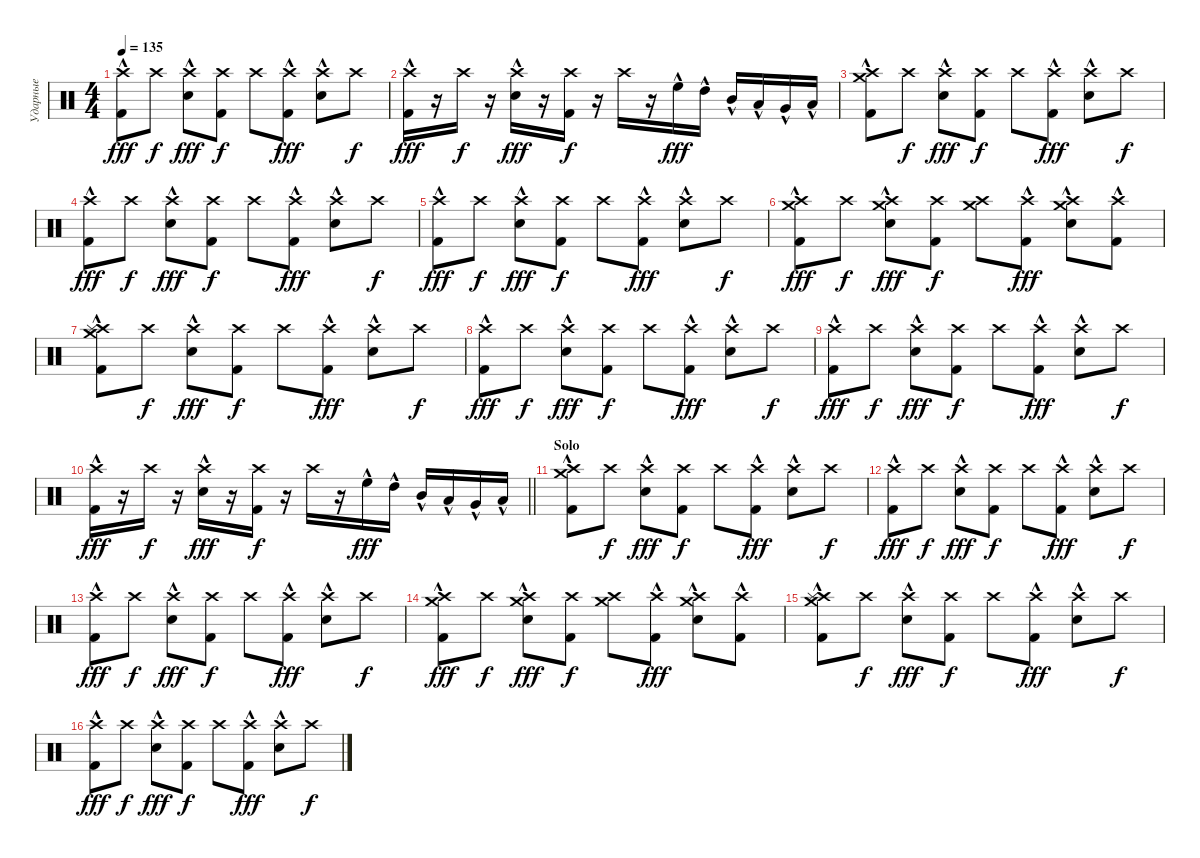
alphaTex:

\track ("Ударные" "Ударные") {instrument percussion}
\staff {score}
\articulation defaults
\ts (4 4)
\tempo 135
\clef neutral
\ks c
("Crash high (hit)" "Kick (hit) 2"{hac}).8{dy fff} "Crash high (hit)".8{dy f} ("Crash high (hit)" "Electric Snare (hit)"{hac}).8{dy fff} ("Crash high (hit)" "Kick (hit) 2").8{dy f} "Crash high (hit)".8 ("Crash high (hit)" "Kick (hit) 2"{hac}).8{dy fff} ("Crash high (hit)" "Electric Snare (hit)"{hac}).8 "Crash high (hit)".8{dy f} |
("Crash high (hit)" "Kick (hit) 2"{hac}).16{dy fff} r.16 "Crash high (hit)".16{dy f} r.16 ("Crash high (hit)" "Electric Snare (hit)"{hac}).16{dy fff} r.16 ("Crash high (hit)" "Kick (hit) 2").16{dy f} r.16 "Crash high (hit)".16 r.16 "High Floor Tom (hit)"{hac}.16{dy fff} "High Tom (hit)"{hac}.16 "Mid Tom (hit)"{hac}.16 "Low Tom (hit)"{hac}.16 "Very Low Tom (hit)"{hac}.16 "Low Floor Tom (hit)"{hac}.16 |
("Crash high (hit)" "Crash medium (hit)"{hac} "Kick (hit) 2"{hac}).8 "Crash high (hit)".8{dy f} ("Crash high (hit)" "Electric Snare (hit)"{hac}).8{dy fff} ("Crash high (hit)" "Kick (hit) 2").8{dy f} "Crash high (hit)".8 ("Crash high (hit)" "Kick (hit) 2"{hac}).8{dy fff} ("Crash high (hit)" "Electric Snare (hit)"{hac}).8 "Crash high (hit)".8{dy f} |
("Crash high (hit)" "Kick (hit) 2"{hac}).8{dy fff} "Crash high (hit)".8{dy f} ("Crash high (hit)" "Electric Snare (hit)"{hac}).8{dy fff} ("Crash high (hit)" "Kick (hit) 2").8{dy f} "Crash high (hit)".8 ("Crash high (hit)" "Kick (hit) 2"{hac}).8{dy fff} ("Crash high (hit)" "Electric Snare (hit)"{hac}).8 "Crash high (hit)".8{dy f} |
("Crash high (hit)" "Kick (hit) 2"{hac}).8{dy fff} "Crash high (hit)".8{dy f} ("Crash high (hit)" "Electric Snare (hit)"{hac}).8{dy fff} ("Crash high (hit)" "Kick (hit) 2").8{dy f} "Crash high (hit)".8 ("Crash high (hit)" "Kick (hit) 2"{hac}).8{dy fff} ("Crash high (hit)" "Electric Snare (hit)"{hac}).8 "Crash high (hit)".8{dy f} |
("Crash high (hit)" "Crash medium (hit)" "Kick (hit) 2"{hac}).8{dy fff} "Crash high (hit)".8{dy f} ("Crash high (hit)" "Crash medium (hit)" "Electric Snare (hit)"{hac}).8{dy fff} ("Crash high (hit)" "Kick (hit) 2").8{dy f} ("Crash high (hit)" "Crash medium (hit)").8 ("Crash high (hit)" "Kick (hit) 2"{hac}).8{dy fff} ("Crash high (hit)" "Crash medium (hit)" "Electric Snare (hit)"{hac}).8 ("Crash high (hit)" "Kick (hit) 2"{hac}).8 |
("Crash high (hit)"{hac} "Crash medium (hit)"{hac} "Splash (hit)"{hac} "Kick (hit) 2"{hac}).8 "Crash high (hit)".8{dy f} ("Crash high (hit)" "Electric Snare (hit)"{hac}).8{dy fff} ("Crash high (hit)" "Kick (hit) 2").8{dy f} "Crash high (hit)".8 ("Crash high (hit)" "Kick (hit) 2"{hac}).8{dy fff} ("Crash high (hit)" "Electric Snare (hit)"{hac}).8 "Crash high (hit)".8{dy f} |
("Crash high (hit)" "Kick (hit) 2"{hac}).8{dy fff} "Crash high (hit)".8{dy f} ("Crash high (hit)" "Electric Snare (hit)"{hac}).8{dy fff} ("Crash high (hit)" "Kick (hit) 2").8{dy f} "Crash high (hit)".8 ("Crash high (hit)" "Kick (hit) 2"{hac}).8{dy fff} ("Crash high (hit)" "Electric Snare (hit)"{hac}).8 "Crash high (hit)".8{dy f} |
("Crash high (hit)" "Kick (hit) 2"{hac}).8{dy fff} "Crash high (hit)".8{dy f} ("Crash high (hit)" "Electric Snare (hit)"{hac}).8{dy fff} ("Crash high (hit)" "Kick (hit) 2").8{dy f} "Crash high (hit)".8 ("Crash high (hit)" "Kick (hit) 2"{hac}).8{dy fff} ("Crash high (hit)" "Electric Snare (hit)"{hac}).8 "Crash high (hit)".8{dy f} |
\barLineRight lightlight
("Crash high (hit)" "Kick (hit) 2"{hac}).16{dy fff} r.16 "Crash high (hit)".16{dy f} r.16 ("Crash high (hit)" "Electric Snare (hit)"{hac}).16{dy fff} r.16 ("Crash high (hit)" "Kick (hit) 2").16{dy f} r.16 "Crash high (hit)".16 r.16 "High Floor Tom (hit)"{hac}.16{dy fff} "High Tom (hit)"{hac}.16 "Mid Tom (hit)"{hac}.16 "Low Tom (hit)"{hac}.16 "Very Low Tom (hit)"{hac}.16 "Low Floor Tom (hit)"{hac}.16 |
\section ("" "Solo")
("Crash high (hit)" "Crash medium (hit)"{hac} "Kick (hit) 2"{hac}).8 "Crash high (hit)".8{dy f} ("Crash high (hit)" "Electric Snare (hit)"{hac}).8{dy fff} ("Crash high (hit)" "Kick (hit) 2").8{dy f} "Crash high (hit)".8 ("Crash high (hit)" "Kick (hit) 2"{hac}).8{dy fff} ("Crash high (hit)" "Electric Snare (hit)"{hac}).8 "Crash high (hit)".8{dy f} |
("Crash high (hit)" "Kick (hit) 2"{hac}).8{dy fff} "Crash high (hit)".8{dy f} ("Crash high (hit)" "Electric Snare (hit)"{hac}).8{dy fff} ("Crash high (hit)" "Kick (hit) 2").8{dy f} "Crash high (hit)".8 ("Crash high (hit)" "Kick (hit) 2"{hac}).8{dy fff} ("Crash high (hit)" "Electric Snare (hit)"{hac}).8 "Crash high (hit)".8{dy f} |
("Crash high (hit)" "Kick (hit) 2"{hac}).8{dy fff} "Crash high (hit)".8{dy f} ("Crash high (hit)" "Electric Snare (hit)"{hac}).8{dy fff} ("Crash high (hit)" "Kick (hit) 2").8{dy f} "Crash high (hit)".8 ("Crash high (hit)" "Kick (hit) 2"{hac}).8{dy fff} ("Crash high (hit)" "Electric Snare (hit)"{hac}).8 "Crash high (hit)".8{dy f} |
("Crash high (hit)" "Crash medium (hit)" "Kick (hit) 2"{hac}).8{dy fff} "Crash high (hit)".8{dy f} ("Crash high (hit)" "Crash medium (hit)" "Electric Snare (hit)"{hac}).8{dy fff} ("Crash high (hit)" "Kick (hit) 2").8{dy f} ("Crash high (hit)" "Crash medium (hit)").8 ("Crash high (hit)" "Kick (hit) 2"{hac}).8{dy fff} ("Crash high (hit)" "Crash medium (hit)" "Electric Snare (hit)"{hac}).8 ("Crash high (hit)" "Kick (hit) 2"{hac}).8 |
("Crash high (hit)"{hac} "Crash medium (hit)"{hac} "Splash (hit)"{hac} "Kick (hit) 2"{hac}).8 "Crash high (hit)".8{dy f} ("Crash high (hit)" "Electric Snare (hit)"{hac}).8{dy fff} ("Crash high (hit)" "Kick (hit) 2").8{dy f} "Crash high (hit)".8 ("Crash high (hit)" "Kick (hit) 2"{hac}).8{dy fff} ("Crash high (hit)" "Electric Snare (hit)"{hac}).8 "Crash high (hit)".8{dy f} |
("Crash high (hit)" "Kick (hit) 2"{hac}).8{dy fff} "Crash high (hit)".8{dy f} ("Crash high (hit)" "Electric Snare (hit)"{hac}).8{dy fff} ("Crash high (hit)" "Kick (hit) 2").8{dy f} "Crash high (hit)".8 ("Crash high (hit)" "Kick (hit) 2"{hac}).8{dy fff} ("Crash high (hit)" "Electric Snare (hit)"{hac}).8 "Crash high (hit)".8{dy f}
